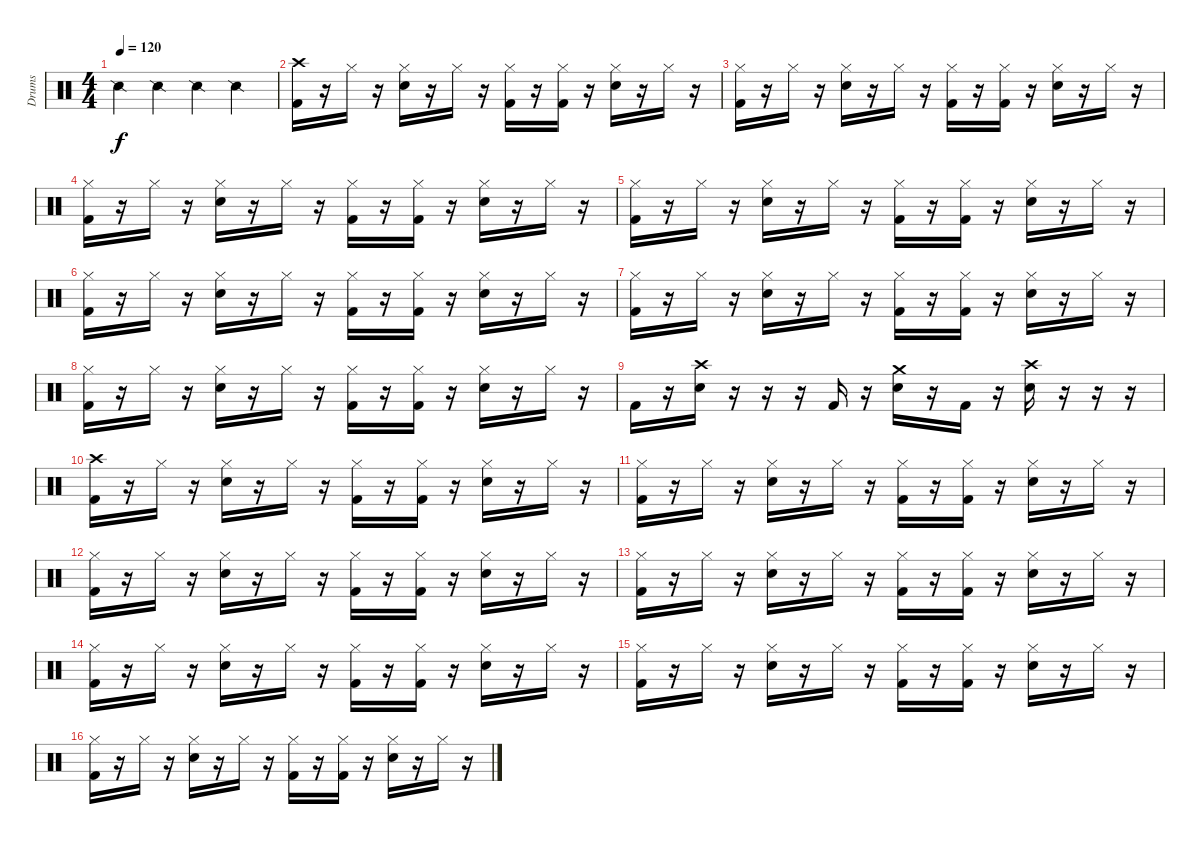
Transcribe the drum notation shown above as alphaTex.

\track ("Drums" "Drums") {instrument percussion}
\staff {score}
\articulation defaults
\ts (4 4)
\tempo 120
\clef neutral
\ks c "Snare (side stick) 2".4{dy f} "Snare (side stick) 2".4 "Snare (side stick) 2".4 "Snare (side stick) 2".4
|
("Kick (hit) 2" "Crash high (hit)").16 r.16 "Hi-Hat (closed)".16 r.16 ("Electric Snare (hit)" "Hi-Hat (closed)").16 r.16 "Hi-Hat (closed)".16 r.16 ("Kick (hit) 2" "Hi-Hat (closed)").16 r.16 ("Kick (hit) 2" "Hi-Hat (closed)").16 r.16 ("Electric Snare (hit)" "Hi-Hat (closed)").16 r.16 "Hi-Hat (closed)".16 r.16 |
("Kick (hit) 2" "Hi-Hat (closed)").16 r.16 "Hi-Hat (closed)".16 r.16 ("Electric Snare (hit)" "Hi-Hat (closed)").16 r.16 "Hi-Hat (closed)".16 r.16 ("Kick (hit) 2" "Hi-Hat (closed)").16 r.16 ("Kick (hit) 2" "Hi-Hat (closed)").16 r.16 ("Electric Snare (hit)" "Hi-Hat (closed)").16 r.16 "Hi-Hat (closed)".16 r.16 |
("Kick (hit) 2" "Hi-Hat (closed)").16 r.16 "Hi-Hat (closed)".16 r.16 ("Electric Snare (hit)" "Hi-Hat (closed)").16 r.16 "Hi-Hat (closed)".16 r.16 ("Kick (hit) 2" "Hi-Hat (closed)").16 r.16 ("Kick (hit) 2" "Hi-Hat (closed)").16 r.16 ("Electric Snare (hit)" "Hi-Hat (closed)").16 r.16 "Hi-Hat (closed)".16 r.16 |
("Kick (hit) 2" "Hi-Hat (closed)").16 r.16 "Hi-Hat (closed)".16 r.16 ("Electric Snare (hit)" "Hi-Hat (closed)").16 r.16 "Hi-Hat (closed)".16 r.16 ("Kick (hit) 2" "Hi-Hat (closed)").16 r.16 ("Kick (hit) 2" "Hi-Hat (closed)").16 r.16 ("Electric Snare (hit)" "Hi-Hat (closed)").16 r.16 "Hi-Hat (closed)".16 r.16 |
("Kick (hit) 2" "Hi-Hat (closed)").16 r.16 "Hi-Hat (closed)".16 r.16 ("Electric Snare (hit)" "Hi-Hat (closed)").16 r.16 "Hi-Hat (closed)".16 r.16 ("Kick (hit) 2" "Hi-Hat (closed)").16 r.16 ("Kick (hit) 2" "Hi-Hat (closed)").16 r.16 ("Electric Snare (hit)" "Hi-Hat (closed)").16 r.16 "Hi-Hat (closed)".16 r.16 |
("Kick (hit) 2" "Hi-Hat (closed)").16 r.16 "Hi-Hat (closed)".16 r.16 ("Electric Snare (hit)" "Hi-Hat (closed)").16 r.16 "Hi-Hat (closed)".16 r.16 ("Kick (hit) 2" "Hi-Hat (closed)").16 r.16 ("Kick (hit) 2" "Hi-Hat (closed)").16 r.16 ("Electric Snare (hit)" "Hi-Hat (closed)").16 r.16 "Hi-Hat (closed)".16 r.16 |
("Kick (hit) 2" "Hi-Hat (closed)").16 r.16 "Hi-Hat (closed)".16 r.16 ("Electric Snare (hit)" "Hi-Hat (closed)").16 r.16 "Hi-Hat (closed)".16 r.16 ("Kick (hit) 2" "Hi-Hat (closed)").16 r.16 ("Kick (hit) 2" "Hi-Hat (closed)").16 r.16 ("Electric Snare (hit)" "Hi-Hat (closed)").16 r.16 "Hi-Hat (closed)".16 r.16 |
"Kick (hit) 2".16 r.16 ("Electric Snare (hit)" "Crash high (hit)").16 r.16 r.16 r.16 "Kick (hit) 2".16 r.16 ("Electric Snare (hit)" "Crash medium (hit)").16 r.16 "Kick (hit) 2".16 r.16 ("Electric Snare (hit)" "Crash high (hit)").16 r.16 r.16 r.16 |
("Kick (hit) 2" "Crash high (hit)").16 r.16 "Hi-Hat (closed)".16 r.16 ("Electric Snare (hit)" "Hi-Hat (closed)").16 r.16 "Hi-Hat (closed)".16 r.16 ("Kick (hit) 2" "Hi-Hat (closed)").16 r.16 ("Kick (hit) 2" "Hi-Hat (closed)").16 r.16 ("Electric Snare (hit)" "Hi-Hat (closed)").16 r.16 "Hi-Hat (closed)".16 r.16 |
("Kick (hit) 2" "Hi-Hat (closed)").16 r.16 "Hi-Hat (closed)".16 r.16 ("Electric Snare (hit)" "Hi-Hat (closed)").16 r.16 "Hi-Hat (closed)".16 r.16 ("Kick (hit) 2" "Hi-Hat (closed)").16 r.16 ("Kick (hit) 2" "Hi-Hat (closed)").16 r.16 ("Electric Snare (hit)" "Hi-Hat (closed)").16 r.16 "Hi-Hat (closed)".16 r.16 |
("Kick (hit) 2" "Hi-Hat (closed)").16 r.16 "Hi-Hat (closed)".16 r.16 ("Electric Snare (hit)" "Hi-Hat (closed)").16 r.16 "Hi-Hat (closed)".16 r.16 ("Kick (hit) 2" "Hi-Hat (closed)").16 r.16 ("Kick (hit) 2" "Hi-Hat (closed)").16 r.16 ("Electric Snare (hit)" "Hi-Hat (closed)").16 r.16 "Hi-Hat (closed)".16 r.16 |
("Kick (hit) 2" "Hi-Hat (closed)").16 r.16 "Hi-Hat (closed)".16 r.16 ("Electric Snare (hit)" "Hi-Hat (closed)").16 r.16 "Hi-Hat (closed)".16 r.16 ("Kick (hit) 2" "Hi-Hat (closed)").16 r.16 ("Kick (hit) 2" "Hi-Hat (closed)").16 r.16 ("Electric Snare (hit)" "Hi-Hat (closed)").16 r.16 "Hi-Hat (closed)".16 r.16 |
("Kick (hit) 2" "Hi-Hat (closed)").16 r.16 "Hi-Hat (closed)".16 r.16 ("Electric Snare (hit)" "Hi-Hat (closed)").16 r.16 "Hi-Hat (closed)".16 r.16 ("Kick (hit) 2" "Hi-Hat (closed)").16 r.16 ("Kick (hit) 2" "Hi-Hat (closed)").16 r.16 ("Electric Snare (hit)" "Hi-Hat (closed)").16 r.16 "Hi-Hat (closed)".16 r.16 |
("Kick (hit) 2" "Hi-Hat (closed)").16 r.16 "Hi-Hat (closed)".16 r.16 ("Electric Snare (hit)" "Hi-Hat (closed)").16 r.16 "Hi-Hat (closed)".16 r.16 ("Kick (hit) 2" "Hi-Hat (closed)").16 r.16 ("Kick (hit) 2" "Hi-Hat (closed)").16 r.16 ("Electric Snare (hit)" "Hi-Hat (closed)").16 r.16 "Hi-Hat (closed)".16 r.16 |
("Kick (hit) 2" "Hi-Hat (closed)").16 r.16 "Hi-Hat (closed)".16 r.16 ("Electric Snare (hit)" "Hi-Hat (closed)").16 r.16 "Hi-Hat (closed)".16 r.16 ("Kick (hit) 2" "Hi-Hat (closed)").16 r.16 ("Kick (hit) 2" "Hi-Hat (closed)").16 r.16 ("Electric Snare (hit)" "Hi-Hat (closed)").16 r.16 "Hi-Hat (closed)".16 r.16
